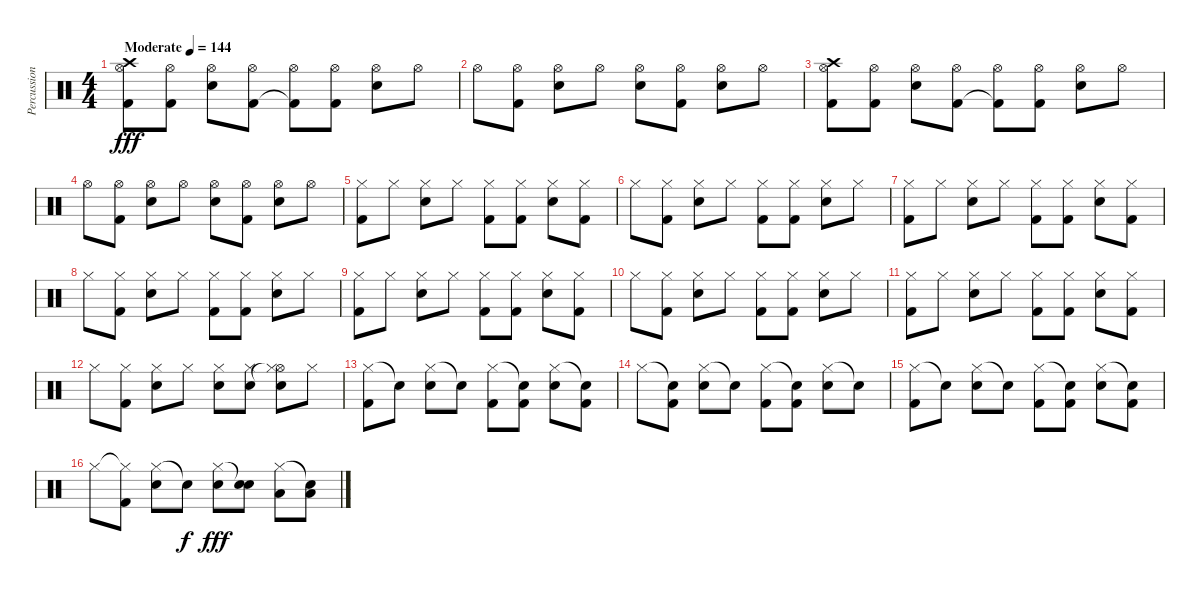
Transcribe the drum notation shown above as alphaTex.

\track ("Percussion" "Percussion") {instrument percussion}
\staff {score}
\articulation defaults
\ts (4 4)
\tempo (144 "Moderate")
\clef neutral
\ks c
("Hi-Hat (open)" "Crash high (hit)" "Kick (hit) 2").8{dy fff} ("Hi-Hat (open)" "Kick (hit) 2").8 ("Hi-Hat (open)" "Electric Snare (hit)").8 ("Hi-Hat (open)" "Kick (hit) 2").8 ("Hi-Hat (open)" "Kick (hit) 2"{t}).8 ("Hi-Hat (open)" "Kick (hit) 2").8 ("Hi-Hat (open)" "Electric Snare (hit)").8 "Hi-Hat (open)".8 |
"Hi-Hat (open)".8 ("Hi-Hat (open)" "Kick (hit) 2").8 ("Hi-Hat (open)" "Electric Snare (hit)").8 "Hi-Hat (open)".8 ("Hi-Hat (open)" "Electric Snare (hit)").8 ("Hi-Hat (open)" "Kick (hit) 2").8 ("Hi-Hat (open)" "Electric Snare (hit)").8 "Hi-Hat (open)".8 |
("Hi-Hat (open)" "Crash high (hit)" "Kick (hit) 2").8 ("Hi-Hat (open)" "Kick (hit) 2").8 ("Hi-Hat (open)" "Electric Snare (hit)").8 ("Hi-Hat (open)" "Kick (hit) 2").8 ("Hi-Hat (open)" "Kick (hit) 2"{t}).8 ("Hi-Hat (open)" "Kick (hit) 2").8 ("Hi-Hat (open)" "Electric Snare (hit)").8 "Hi-Hat (open)".8 |
"Hi-Hat (open)".8 ("Hi-Hat (open)" "Kick (hit) 2").8 ("Hi-Hat (open)" "Electric Snare (hit)").8 "Hi-Hat (open)".8 ("Hi-Hat (open)" "Electric Snare (hit)").8 ("Hi-Hat (open)" "Kick (hit) 2").8 ("Hi-Hat (open)" "Electric Snare (hit)").8 "Hi-Hat (open)".8 |
("Hi-Hat (closed)" "Kick (hit) 2").8 "Hi-Hat (closed)".8 ("Hi-Hat (closed)" "Electric Snare (hit)").8 "Hi-Hat (closed)".8 ("Hi-Hat (closed)" "Kick (hit) 2").8 ("Hi-Hat (closed)" "Kick (hit) 2").8 ("Hi-Hat (closed)" "Electric Snare (hit)").8 ("Hi-Hat (closed)" "Kick (hit) 2").8 |
"Hi-Hat (closed)".8 ("Hi-Hat (closed)" "Kick (hit) 2").8 ("Hi-Hat (closed)" "Electric Snare (hit)").8 "Hi-Hat (closed)".8 ("Hi-Hat (closed)" "Kick (hit) 2").8 ("Hi-Hat (closed)" "Kick (hit) 2").8 ("Hi-Hat (closed)" "Electric Snare (hit)").8 "Hi-Hat (closed)".8 |
("Hi-Hat (closed)" "Kick (hit) 2").8 "Hi-Hat (closed)".8 ("Hi-Hat (closed)" "Electric Snare (hit)").8 "Hi-Hat (closed)".8 ("Hi-Hat (closed)" "Kick (hit) 2").8 ("Hi-Hat (closed)" "Kick (hit) 2").8 ("Hi-Hat (closed)" "Electric Snare (hit)").8 ("Hi-Hat (closed)" "Kick (hit) 2").8 |
"Hi-Hat (closed)".8 ("Hi-Hat (closed)" "Kick (hit) 2").8 ("Hi-Hat (closed)" "Electric Snare (hit)").8 "Hi-Hat (closed)".8 ("Hi-Hat (closed)" "Kick (hit) 2").8 ("Hi-Hat (closed)" "Kick (hit) 2").8 ("Hi-Hat (closed)" "Electric Snare (hit)").8 "Hi-Hat (closed)".8 |
("Hi-Hat (closed)" "Kick (hit) 2").8 "Hi-Hat (closed)".8 ("Hi-Hat (closed)" "Electric Snare (hit)").8 "Hi-Hat (closed)".8 ("Hi-Hat (closed)" "Kick (hit) 2").8 ("Hi-Hat (closed)" "Kick (hit) 2").8 ("Hi-Hat (closed)" "Electric Snare (hit)").8 ("Hi-Hat (closed)" "Kick (hit) 2").8 |
"Hi-Hat (closed)".8 ("Hi-Hat (closed)" "Kick (hit) 2").8 ("Hi-Hat (closed)" "Electric Snare (hit)").8 "Hi-Hat (closed)".8 ("Hi-Hat (closed)" "Kick (hit) 2").8 ("Hi-Hat (closed)" "Kick (hit) 2").8 ("Hi-Hat (closed)" "Electric Snare (hit)").8 "Hi-Hat (closed)".8 |
("Hi-Hat (closed)" "Kick (hit) 2").8 "Hi-Hat (closed)".8 ("Hi-Hat (closed)" "Electric Snare (hit)").8 "Hi-Hat (closed)".8 ("Hi-Hat (closed)" "Kick (hit) 2").8 ("Hi-Hat (closed)" "Kick (hit) 2").8 ("Hi-Hat (closed)" "Electric Snare (hit)").8 ("Hi-Hat (closed)" "Kick (hit) 2").8 |
"Hi-Hat (closed)".8 ("Hi-Hat (closed)" "Kick (hit) 2").8 ("Hi-Hat (closed)" "Electric Snare (hit)").8 "Hi-Hat (closed)".8 ("Hi-Hat (closed)" "Electric Snare (hit)").8 ("Hi-Hat (closed)" "Electric Snare (hit)").8 ("Hi-Hat (open)" "Hi-Hat (closed)"{t} "Electric Snare (hit)").8 "Hi-Hat (closed)".8 |
("Hi-Hat (closed)" "Kick (hit) 2").8 "Snare (hit)"{t}.8 ("Hi-Hat (closed)" "Electric Snare (hit)").8 "Snare (hit)"{t}.8 ("Hi-Hat (closed)" "Kick (hit) 2").8 ("Snare (hit)"{t} "Kick (hit) 2").8 ("Hi-Hat (closed)" "Electric Snare (hit)").8 ("Snare (hit)"{t} "Kick (hit) 2").8 |
"Hi-Hat (closed)".8 ("Snare (hit)"{t} "Kick (hit) 2").8 ("Hi-Hat (closed)" "Electric Snare (hit)").8 "Snare (hit)"{t}.8 ("Hi-Hat (closed)" "Kick (hit) 2").8 ("Snare (hit)"{t} "Kick (hit) 2").8 ("Hi-Hat (closed)" "Electric Snare (hit)").8 "Snare (hit)"{t}.8 |
("Hi-Hat (closed)" "Kick (hit) 2").8 "Snare (hit)"{t}.8 ("Hi-Hat (closed)" "Electric Snare (hit)").8 "Snare (hit)"{t}.8 ("Hi-Hat (closed)" "Kick (hit) 2").8 ("Snare (hit)"{t} "Kick (hit) 2").8 ("Hi-Hat (closed)" "Electric Snare (hit)").8 ("Snare (hit)"{t} "Kick (hit) 2").8 |
"Hi-Hat (closed)".8 ("Hi-Hat (closed)"{t} "Kick (hit) 2").8 ("Hi-Hat (closed)" "Electric Snare (hit)").8 "Snare (hit)"{t}.8{dy f} ("Hi-Hat (closed)" "Electric Snare (hit)").8{dy fff} ("Snare (hit)"{t} "Electric Snare (hit)").8 ("Hi-Hat (closed)" "Low Floor Tom (hit)").8 ("Snare (hit)"{t} "Low Floor Tom (hit)").8
